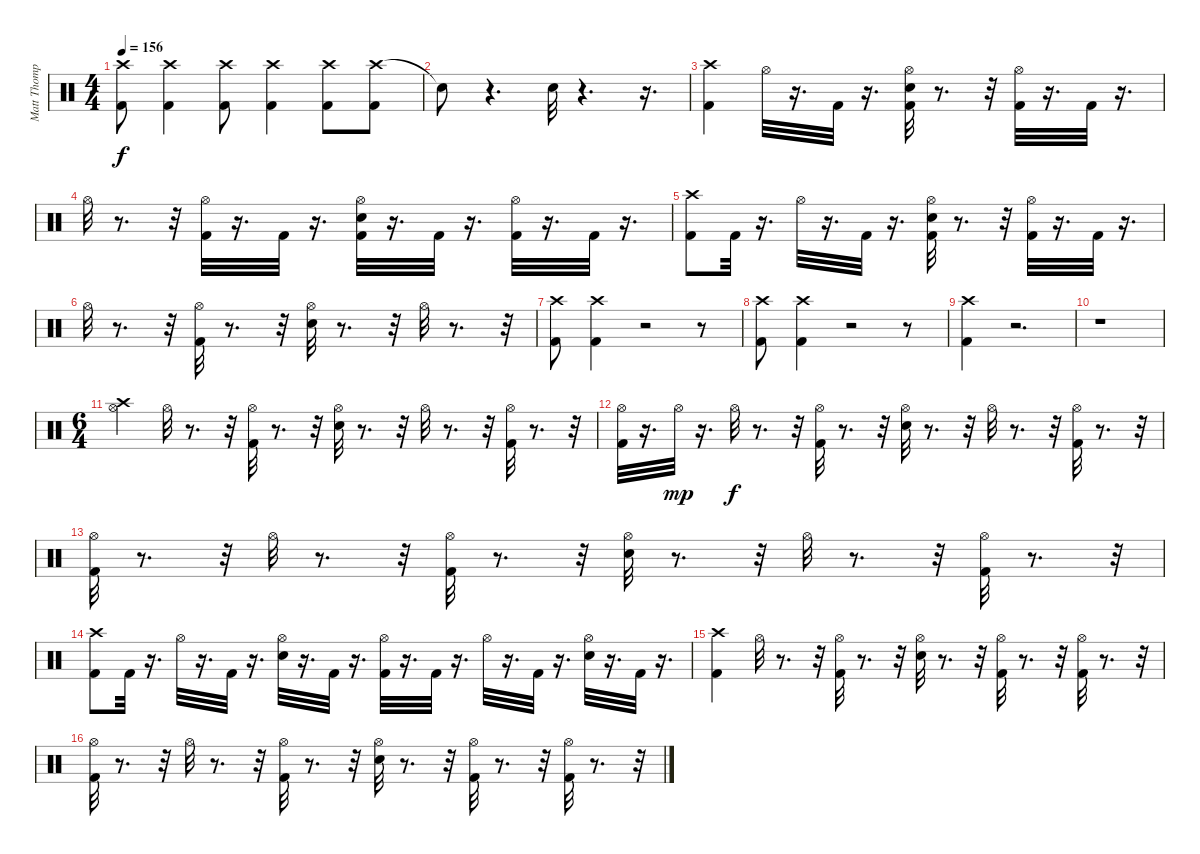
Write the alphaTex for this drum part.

\track ("Matt Thompson" "Matt Thomp") {instrument percussion}
\staff {score}
\articulation defaults
\ts (4 4)
\tempo 156
\clef neutral
\ks c
("Kick (hit) 2" "Crash high (hit)").8{dy f} ("Crash high (hit)" "Kick (hit) 2").4 ("Crash high (hit)" "Kick (hit) 2").8 ("Crash high (hit)" "Kick (hit) 2").4 ("Crash high (hit)" "Kick (hit) 2").8 ("Crash high (hit)" "Kick (hit) 2").8 |
"Snare (hit)"{t}.8 r.4{d} "Snare (hit) 2".32 r.4{d} r.16{d} |
("Kick (hit) 2" "Crash high (hit)").4 "Hi-Hat (open)".32 r.16{d} "Kick (hit) 2".32 r.16{d} ("Snare (hit) 2" "Kick (hit) 2" "Hi-Hat (open)").32 r.8{d} r.32 ("Kick (hit) 2" "Hi-Hat (open)").32 r.16{d} "Kick (hit) 2".32 r.16{d} |
"Hi-Hat (open)".32 r.8{d} r.32 ("Kick (hit) 2" "Hi-Hat (open)").32 r.16{d} "Kick (hit) 2".32 r.16{d} ("Snare (hit) 2" "Kick (hit) 2" "Hi-Hat (open)").32 r.16{d} "Kick (hit) 2".32 r.16{d} ("Kick (hit) 2" "Hi-Hat (open)").32 r.16{d} "Kick (hit) 2".32 r.16{d} |
("Crash high (hit)" "Kick (hit) 2").8 "Kick (hit) 2".32 r.16{d} "Hi-Hat (open)".32 r.16{d} "Kick (hit) 2".32 r.16{d} ("Snare (hit) 2" "Hi-Hat (open)" "Kick (hit) 2").32 r.8{d} r.32 ("Hi-Hat (open)" "Kick (hit) 2").32 r.16{d} "Kick (hit) 2".32 r.16{d} |
"Hi-Hat (open)".32 r.8{d} r.32 ("Hi-Hat (open)" "Kick (hit) 2").32 r.8{d} r.32 ("Snare (hit) 2" "Hi-Hat (open)").32 r.8{d} r.32 "Hi-Hat (open)".32 r.8{d} r.32 |
("Crash high (hit)" "Kick (hit) 2").8 ("Crash high (hit)" "Kick (hit) 2").4 r.2 r.8 |
("Crash high (hit)" "Kick (hit) 2").8 ("Crash high (hit)" "Kick (hit) 2").4 r.2 r.8 |
("Crash high (hit)" "Kick (hit) 2").4 r.2{d} |
r.1 |
\ts (6 4)
("Hi-Hat (open)" "Crash high (hit)").4 "Hi-Hat (open)".32 r.8{d} r.32 ("Hi-Hat (open)" "Kick (hit) 2").32 r.8{d} r.32 ("Hi-Hat (open)" "Snare (hit) 2").32 r.8{d} r.32 "Hi-Hat (open)".32 r.8{d} r.32 ("Hi-Hat (open)" "Kick (hit) 2").32 r.8{d} r.32 |
("Hi-Hat (open)" "Kick (hit) 2").32 r.16{d} "Hi-Hat (open)".32{dy mp} r.16{d} "Hi-Hat (open)".32{dy f} r.8{d} r.32 ("Hi-Hat (open)" "Kick (hit) 2").32 r.8{d} r.32 ("Hi-Hat (open)" "Snare (hit) 2").32 r.8{d} r.32 "Hi-Hat (open)".32 r.8{d} r.32 ("Kick (hit) 2" "Hi-Hat (open)").32 r.8{d} r.32 |
("Hi-Hat (open)" "Kick (hit) 2").32 r.8{d} r.32 "Hi-Hat (open)".32 r.8{d} r.32 ("Hi-Hat (open)" "Kick (hit) 2").32 r.8{d} r.32 ("Hi-Hat (open)" "Snare (hit) 2").32 r.8{d} r.32 "Hi-Hat (open)".32 r.8{d} r.32 ("Hi-Hat (open)" "Kick (hit) 2").32 r.8{d} r.32 |
("Crash high (hit)" "Kick (hit) 2").8 "Kick (hit) 2".32 r.16{d} "Hi-Hat (open)".32 r.16{d} "Kick (hit) 2".32 r.16{d} ("Snare (hit) 2" "Hi-Hat (open)").32 r.16{d} "Kick (hit) 2".32 r.16{d} ("Hi-Hat (open)" "Kick (hit) 2").32 r.16{d} "Kick (hit) 2".32 r.16{d} "Hi-Hat (open)".32 r.16{d} "Kick (hit) 2".32 r.16{d} ("Snare (hit) 2" "Hi-Hat (open)").32 r.16{d} "Kick (hit) 2".32 r.16{d} |
("Crash high (hit)" "Kick (hit) 2").4 "Hi-Hat (open)".32 r.8{d} r.32 ("Hi-Hat (open)" "Kick (hit) 2").32 r.8{d} r.32 ("Hi-Hat (open)" "Snare (hit) 2").32 r.8{d} r.32 ("Hi-Hat (open)" "Kick (hit) 2").32 r.8{d} r.32 ("Hi-Hat (open)" "Kick (hit) 2").32 r.8{d} r.32 |
("Hi-Hat (open)" "Kick (hit) 2").32 r.8{d} r.32 "Hi-Hat (open)".32 r.8{d} r.32 ("Hi-Hat (open)" "Kick (hit) 2").32 r.8{d} r.32 ("Hi-Hat (open)" "Snare (hit) 2").32 r.8{d} r.32 ("Hi-Hat (open)" "Kick (hit) 2").32 r.8{d} r.32 ("Hi-Hat (open)" "Kick (hit) 2").32 r.8{d} r.32
